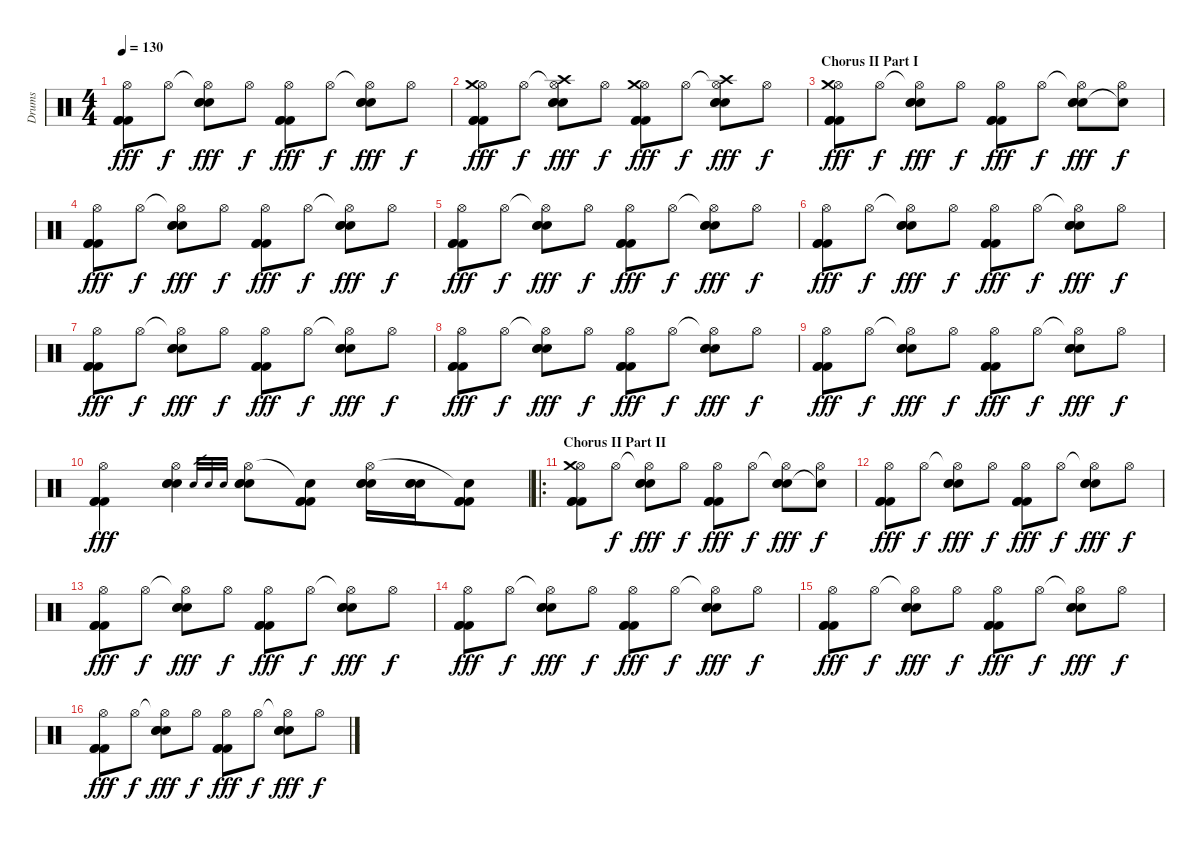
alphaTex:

\track ("Drums" "Drums") {instrument percussion}
\staff {score}
\articulation defaults
\ts (4 4)
\tempo 130
\clef neutral
\ks c
("Hi-Hat (open)" "Kick (hit) 2" "Kick (hit) 2" "Kick (hit) 2").8{dy fff} "Hi-Hat (open)".8{dy f} ("Hi-Hat (open)"{t} "Electric Snare (hit)" "Electric Snare (hit)" "Electric Snare (hit)").8{dy fff} "Hi-Hat (open)".8{dy f} ("Hi-Hat (open)" "Kick (hit) 2" "Kick (hit) 2" "Kick (hit) 2").8{dy fff} "Hi-Hat (open)".8{dy f} ("Hi-Hat (open)"{t} "Electric Snare (hit)" "Electric Snare (hit)" "Electric Snare (hit)").8{dy fff} "Hi-Hat (open)".8{dy f} |
("Hi-Hat (open)" "Kick (hit) 2" "Kick (hit) 2" "Kick (hit) 2" "Crash medium (hit)").8{dy fff} "Hi-Hat (open)".8{dy f} ("Hi-Hat (open)"{t} "Electric Snare (hit)" "Electric Snare (hit)" "Electric Snare (hit)" "Crash high (hit)").8{dy fff} "Hi-Hat (open)".8{dy f} ("Hi-Hat (open)" "Kick (hit) 2" "Kick (hit) 2" "Kick (hit) 2" "Crash medium (hit)").8{dy fff} "Hi-Hat (open)".8{dy f} ("Hi-Hat (open)"{t} "Electric Snare (hit)" "Electric Snare (hit)" "Electric Snare (hit)" "Crash high (hit)").8{dy fff} "Hi-Hat (open)".8{dy f} |
\section ("" "Chorus II Part I")
("Hi-Hat (open)" "Kick (hit) 2" "Kick (hit) 2" "Kick (hit) 2" "Crash medium (hit)").8{dy fff} "Hi-Hat (open)".8{dy f} ("Hi-Hat (open)"{t} "Electric Snare (hit)" "Electric Snare (hit)" "Electric Snare (hit)").8{dy fff} "Hi-Hat (open)".8{dy f} ("Hi-Hat (open)" "Kick (hit) 2" "Kick (hit) 2" "Kick (hit) 2").8{dy fff} "Hi-Hat (open)".8{dy f} ("Hi-Hat (open)"{t} "Electric Snare (hit)" "Electric Snare (hit)" "Electric Snare (hit)").8{dy fff} ("Hi-Hat (open)" "Snare (hit)"{t}).8{dy f} |
("Hi-Hat (open)" "Kick (hit) 2" "Kick (hit) 2" "Kick (hit) 2").8{dy fff} "Hi-Hat (open)".8{dy f} ("Hi-Hat (open)"{t} "Electric Snare (hit)" "Electric Snare (hit)" "Electric Snare (hit)").8{dy fff} "Hi-Hat (open)".8{dy f} ("Hi-Hat (open)" "Kick (hit) 2" "Kick (hit) 2" "Kick (hit) 2").8{dy fff} "Hi-Hat (open)".8{dy f} ("Hi-Hat (open)"{t} "Electric Snare (hit)" "Electric Snare (hit)" "Electric Snare (hit)").8{dy fff} "Hi-Hat (open)".8{dy f} |
("Hi-Hat (open)" "Kick (hit) 2" "Kick (hit) 2" "Kick (hit) 2").8{dy fff} "Hi-Hat (open)".8{dy f} ("Hi-Hat (open)"{t} "Electric Snare (hit)" "Electric Snare (hit)" "Electric Snare (hit)").8{dy fff} "Hi-Hat (open)".8{dy f} ("Hi-Hat (open)" "Kick (hit) 2" "Kick (hit) 2" "Kick (hit) 2").8{dy fff} "Hi-Hat (open)".8{dy f} ("Hi-Hat (open)"{t} "Electric Snare (hit)" "Electric Snare (hit)" "Electric Snare (hit)").8{dy fff} "Hi-Hat (open)".8{dy f} |
("Hi-Hat (open)" "Kick (hit) 2" "Kick (hit) 2" "Kick (hit) 2").8{dy fff} "Hi-Hat (open)".8{dy f} ("Hi-Hat (open)"{t} "Electric Snare (hit)" "Electric Snare (hit)" "Electric Snare (hit)").8{dy fff} "Hi-Hat (open)".8{dy f} ("Hi-Hat (open)" "Kick (hit) 2" "Kick (hit) 2" "Kick (hit) 2").8{dy fff} "Hi-Hat (open)".8{dy f} ("Hi-Hat (open)"{t} "Electric Snare (hit)" "Electric Snare (hit)" "Electric Snare (hit)").8{dy fff} "Hi-Hat (open)".8{dy f} |
("Hi-Hat (open)" "Kick (hit) 2" "Kick (hit) 2" "Kick (hit) 2").8{dy fff} "Hi-Hat (open)".8{dy f} ("Hi-Hat (open)"{t} "Electric Snare (hit)" "Electric Snare (hit)" "Electric Snare (hit)").8{dy fff} "Hi-Hat (open)".8{dy f} ("Hi-Hat (open)" "Kick (hit) 2" "Kick (hit) 2" "Kick (hit) 2").8{dy fff} "Hi-Hat (open)".8{dy f} ("Hi-Hat (open)"{t} "Electric Snare (hit)" "Electric Snare (hit)" "Electric Snare (hit)").8{dy fff} "Hi-Hat (open)".8{dy f} |
("Hi-Hat (open)" "Kick (hit) 2" "Kick (hit) 2" "Kick (hit) 2").8{dy fff} "Hi-Hat (open)".8{dy f} ("Hi-Hat (open)"{t} "Electric Snare (hit)" "Electric Snare (hit)" "Electric Snare (hit)").8{dy fff} "Hi-Hat (open)".8{dy f} ("Hi-Hat (open)" "Kick (hit) 2" "Kick (hit) 2" "Kick (hit) 2").8{dy fff} "Hi-Hat (open)".8{dy f} ("Hi-Hat (open)"{t} "Electric Snare (hit)" "Electric Snare (hit)" "Electric Snare (hit)").8{dy fff} "Hi-Hat (open)".8{dy f} |
("Hi-Hat (open)" "Kick (hit) 2" "Kick (hit) 2" "Kick (hit) 2").8{dy fff} "Hi-Hat (open)".8{dy f} ("Hi-Hat (open)"{t} "Electric Snare (hit)" "Electric Snare (hit)" "Electric Snare (hit)").8{dy fff} "Hi-Hat (open)".8{dy f} ("Hi-Hat (open)" "Kick (hit) 2" "Kick (hit) 2" "Kick (hit) 2").8{dy fff} "Hi-Hat (open)".8{dy f} ("Hi-Hat (open)"{t} "Electric Snare (hit)" "Electric Snare (hit)" "Electric Snare (hit)").8{dy fff} "Hi-Hat (open)".8{dy f} |
("Kick (hit) 2" "Kick (hit) 2" "Kick (hit) 2" "Hi-Hat (open)").4{dy fff} ("Electric Snare (hit)" "Electric Snare (hit)" "Electric Snare (hit)" "Hi-Hat (open)").4 "Electric Snare (hit)".32{gr} "Electric Snare (hit)".32{gr} "Electric Snare (hit)".32{gr} ("Electric Snare (hit)" "Electric Snare (hit)" "Electric Snare (hit)" "Hi-Hat (open)").8 ("Kick (hit) 2" "Kick (hit) 2" "Kick (hit) 2" "Snare (hit)"{t}).8 ("Electric Snare (hit)" "Electric Snare (hit)" "Electric Snare (hit)" "Hi-Hat (open)").16 ("Electric Snare (hit)" "Electric Snare (hit)" "Electric Snare (hit)").16 ("Kick (hit) 2" "Kick (hit) 2" "Kick (hit) 2" "Snare (hit)"{t}).8 |
\ro
\section ("" "Chorus II Part II")
("Hi-Hat (open)" "Kick (hit) 2" "Kick (hit) 2" "Kick (hit) 2" "Crash medium (hit)").8 "Hi-Hat (open)".8{dy f} ("Hi-Hat (open)"{t} "Electric Snare (hit)" "Electric Snare (hit)" "Electric Snare (hit)").8{dy fff} "Hi-Hat (open)".8{dy f} ("Hi-Hat (open)" "Kick (hit) 2" "Kick (hit) 2" "Kick (hit) 2").8{dy fff} "Hi-Hat (open)".8{dy f} ("Hi-Hat (open)"{t} "Electric Snare (hit)" "Electric Snare (hit)" "Electric Snare (hit)").8{dy fff} ("Hi-Hat (open)" "Snare (hit)"{t}).8{dy f} |
("Hi-Hat (open)" "Kick (hit) 2" "Kick (hit) 2" "Kick (hit) 2").8{dy fff} "Hi-Hat (open)".8{dy f} ("Hi-Hat (open)"{t} "Electric Snare (hit)" "Electric Snare (hit)" "Electric Snare (hit)").8{dy fff} "Hi-Hat (open)".8{dy f} ("Hi-Hat (open)" "Kick (hit) 2" "Kick (hit) 2" "Kick (hit) 2").8{dy fff} "Hi-Hat (open)".8{dy f} ("Hi-Hat (open)"{t} "Electric Snare (hit)" "Electric Snare (hit)" "Electric Snare (hit)").8{dy fff} "Hi-Hat (open)".8{dy f} |
("Hi-Hat (open)" "Kick (hit) 2" "Kick (hit) 2" "Kick (hit) 2").8{dy fff} "Hi-Hat (open)".8{dy f} ("Hi-Hat (open)"{t} "Electric Snare (hit)" "Electric Snare (hit)" "Electric Snare (hit)").8{dy fff} "Hi-Hat (open)".8{dy f} ("Hi-Hat (open)" "Kick (hit) 2" "Kick (hit) 2" "Kick (hit) 2").8{dy fff} "Hi-Hat (open)".8{dy f} ("Hi-Hat (open)"{t} "Electric Snare (hit)" "Electric Snare (hit)" "Electric Snare (hit)").8{dy fff} "Hi-Hat (open)".8{dy f} |
("Hi-Hat (open)" "Kick (hit) 2" "Kick (hit) 2" "Kick (hit) 2").8{dy fff} "Hi-Hat (open)".8{dy f} ("Hi-Hat (open)"{t} "Electric Snare (hit)" "Electric Snare (hit)" "Electric Snare (hit)").8{dy fff} "Hi-Hat (open)".8{dy f} ("Hi-Hat (open)" "Kick (hit) 2" "Kick (hit) 2" "Kick (hit) 2").8{dy fff} "Hi-Hat (open)".8{dy f} ("Hi-Hat (open)"{t} "Electric Snare (hit)" "Electric Snare (hit)" "Electric Snare (hit)").8{dy fff} "Hi-Hat (open)".8{dy f} |
("Hi-Hat (open)" "Kick (hit) 2" "Kick (hit) 2" "Kick (hit) 2").8{dy fff} "Hi-Hat (open)".8{dy f} ("Hi-Hat (open)"{t} "Electric Snare (hit)" "Electric Snare (hit)" "Electric Snare (hit)").8{dy fff} "Hi-Hat (open)".8{dy f} ("Hi-Hat (open)" "Kick (hit) 2" "Kick (hit) 2" "Kick (hit) 2").8{dy fff} "Hi-Hat (open)".8{dy f} ("Hi-Hat (open)"{t} "Electric Snare (hit)" "Electric Snare (hit)" "Electric Snare (hit)").8{dy fff} "Hi-Hat (open)".8{dy f} |
("Hi-Hat (open)" "Kick (hit) 2" "Kick (hit) 2" "Kick (hit) 2").8{dy fff} "Hi-Hat (open)".8{dy f} ("Hi-Hat (open)"{t} "Electric Snare (hit)" "Electric Snare (hit)" "Electric Snare (hit)").8{dy fff} "Hi-Hat (open)".8{dy f} ("Hi-Hat (open)" "Kick (hit) 2" "Kick (hit) 2" "Kick (hit) 2").8{dy fff} "Hi-Hat (open)".8{dy f} ("Hi-Hat (open)"{t} "Electric Snare (hit)" "Electric Snare (hit)" "Electric Snare (hit)").8{dy fff} "Hi-Hat (open)".8{dy f}
